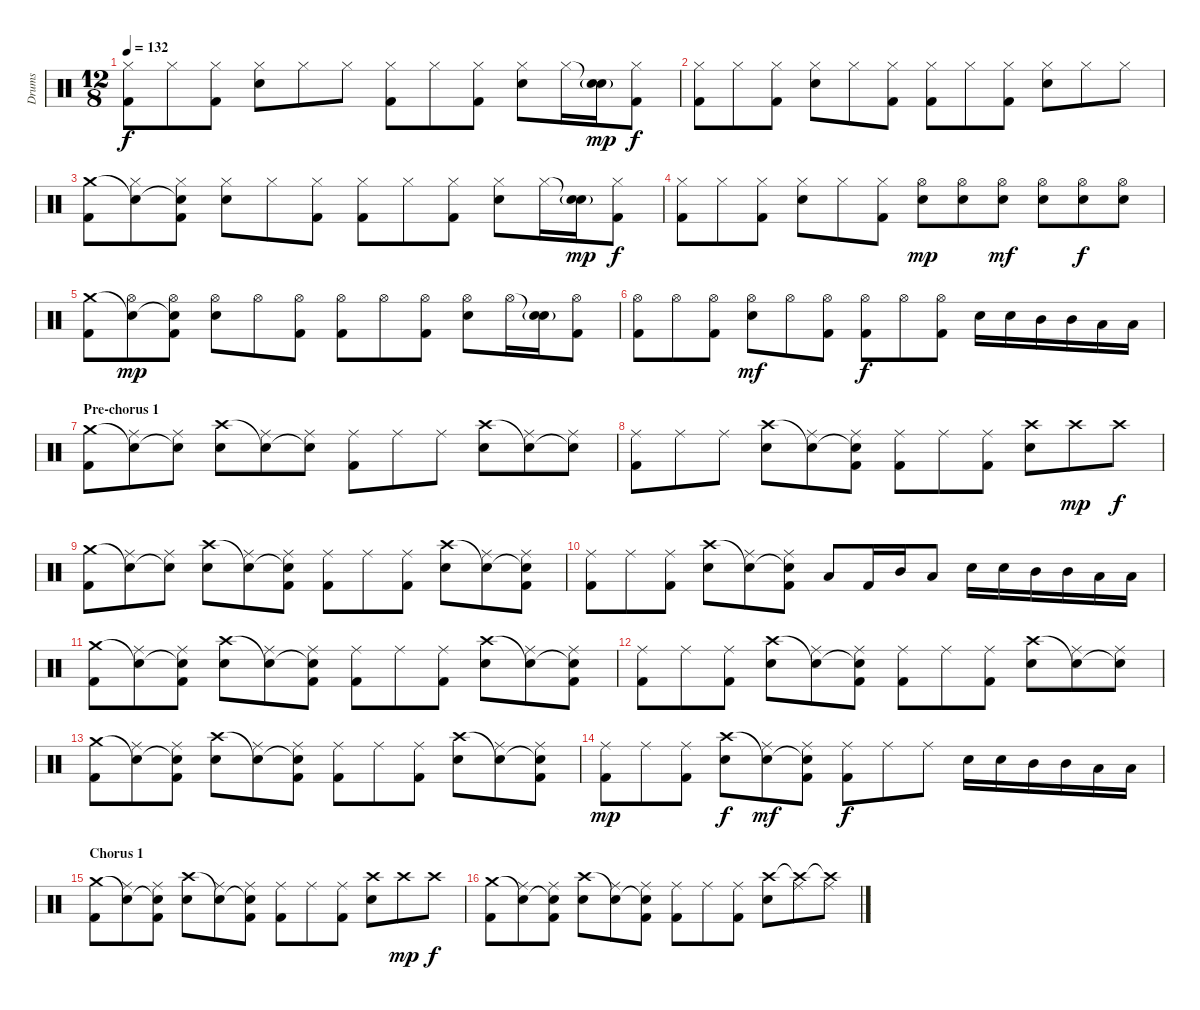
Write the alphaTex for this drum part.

\track ("Drums" "Drums") {instrument percussion}
\staff {score}
\articulation defaults
\ts (12 8)
\tempo 132
\clef neutral
\ks c
("Hi-Hat (closed)" "Kick (hit) 2").8{dy f} "Hi-Hat (closed)".8 ("Hi-Hat (closed)" "Kick (hit) 2").8 ("Hi-Hat (closed)" "Electric Snare (hit)").8 "Hi-Hat (closed)".8 "Hi-Hat (closed)".8 ("Hi-Hat (closed)" "Kick (hit) 2").8 "Hi-Hat (closed)".8 ("Hi-Hat (closed)" "Kick (hit) 2").8 ("Hi-Hat (closed)" "Electric Snare (hit)").8 "Hi-Hat (closed)".16 ("Snare (hit)"{t} "Electric Snare (hit)"{g}).16{dy mp} ("Hi-Hat (closed)" "Kick (hit) 2").8{dy f} |
("Hi-Hat (closed)" "Kick (hit) 2").8 "Hi-Hat (closed)".8 ("Hi-Hat (closed)" "Kick (hit) 2").8 ("Hi-Hat (closed)" "Electric Snare (hit)").8 "Hi-Hat (closed)".8 ("Hi-Hat (closed)" "Kick (hit) 2").8 ("Hi-Hat (closed)" "Kick (hit) 2").8 "Hi-Hat (closed)".8 ("Hi-Hat (closed)" "Kick (hit) 2").8 ("Hi-Hat (closed)" "Electric Snare (hit)").8 "Hi-Hat (closed)".8 "Hi-Hat (closed)".8 |
("Crash medium (hit)" "Kick (hit) 2").8 ("Snare (hit)"{t} "Hi-Hat (closed)").8 ("Snare (hit)"{t} "Hi-Hat (closed)" "Kick (hit) 2").8 ("Hi-Hat (closed)" "Electric Snare (hit)").8 "Hi-Hat (closed)".8 ("Hi-Hat (closed)" "Kick (hit) 2").8 ("Hi-Hat (closed)" "Kick (hit) 2").8 "Hi-Hat (closed)".8 ("Hi-Hat (closed)" "Kick (hit) 2").8 ("Hi-Hat (closed)" "Electric Snare (hit)").8 "Hi-Hat (closed)".16 ("Snare (hit)"{t} "Electric Snare (hit)"{g}).16{dy mp} ("Hi-Hat (closed)" "Kick (hit) 2").8{dy f} |
("Hi-Hat (closed)" "Kick (hit) 2").8 "Hi-Hat (closed)".8 ("Hi-Hat (closed)" "Kick (hit) 2").8 ("Hi-Hat (closed)" "Electric Snare (hit)").8 "Hi-Hat (closed)".8 ("Hi-Hat (closed)" "Kick (hit) 2").8 ("Hi-Hat (open)" "Electric Snare (hit)").8{dy mp} ("Hi-Hat (open)" "Electric Snare (hit)").8 ("Hi-Hat (open)" "Electric Snare (hit)").8{dy mf} ("Hi-Hat (open)" "Electric Snare (hit)").8 ("Hi-Hat (open)" "Electric Snare (hit)").8{dy f} ("Hi-Hat (open)" "Electric Snare (hit)").8 |
("Crash medium (hit)" "Kick (hit) 2").8 ("Snare (hit)"{t} "Hi-Hat (open)").8{dy mp} ("Snare (hit)"{t} "Hi-Hat (open)" "Kick (hit) 2").8 ("Hi-Hat (open)" "Electric Snare (hit)").8 "Hi-Hat (open)".8 ("Hi-Hat (open)" "Kick (hit) 2").8 ("Hi-Hat (open)" "Kick (hit) 2").8 "Hi-Hat (open)".8 ("Hi-Hat (open)" "Kick (hit) 2").8 ("Hi-Hat (open)" "Electric Snare (hit)").8 "Hi-Hat (open)".16 ("Snare (hit)"{t} "Electric Snare (hit)"{g}).16 ("Hi-Hat (open)" "Kick (hit) 2").8 |
("Hi-Hat (open)" "Kick (hit) 2").8 "Hi-Hat (open)".8 ("Hi-Hat (open)" "Kick (hit) 2").8 ("Hi-Hat (open)" "Electric Snare (hit)").8{dy mf} "Hi-Hat (open)".8 ("Hi-Hat (open)" "Kick (hit) 2").8 ("Hi-Hat (open)" "Kick (hit) 2").8{dy f} "Hi-Hat (open)".8 ("Hi-Hat (open)" "Kick (hit) 2").8 "Electric Snare (hit)".16 "Electric Snare (hit)".16 "Mid Tom (hit)".16 "Mid Tom (hit)".16 "Low Tom (hit)".16 "Low Tom (hit)".16 |
\section ("" "Pre-chorus 1")
("Crash medium (hit)" "Kick (hit) 2").8 ("Snare (hit)"{t} "Ride (middle)").8 ("Snare (hit)"{t} "Ride (middle)").8 ("Crash high (hit)" "Electric Snare (hit)").8 ("Snare (hit)"{t} "Ride (middle)").8 ("Snare (hit)"{t} "Ride (middle)").8 ("Ride (middle)" "Kick (hit) 2").8 "Ride (middle)".8 "Ride (middle)".8 ("Crash high (hit)" "Electric Snare (hit)").8 ("Snare (hit)"{t} "Ride (middle)").8 ("Snare (hit)"{t} "Ride (middle)").8 |
("Ride (middle)" "Kick (hit) 2").8 "Ride (middle)".8 "Ride (middle)".8 ("Crash high (hit)" "Electric Snare (hit)").8 ("Snare (hit)"{t} "Ride (middle)").8 ("Snare (hit)"{t} "Ride (middle)" "Kick (hit) 2").8 ("Ride (middle)" "Kick (hit) 2").8 "Ride (middle)".8 ("Ride (middle)" "Kick (hit) 2").8 ("Crash high (hit)" "Electric Snare (hit)").8 "Crash high (hit)".8{dy mp} "Crash high (hit)".8{dy f} |
("Crash medium (hit)" "Kick (hit) 2").8 ("Snare (hit)"{t} "Ride (middle)").8 ("Snare (hit)"{t} "Ride (middle)").8 ("Crash high (hit)" "Electric Snare (hit)").8 ("Snare (hit)"{t} "Ride (middle)").8 ("Snare (hit)"{t} "Ride (middle)" "Kick (hit) 2").8 ("Ride (middle)" "Kick (hit) 2").8 "Ride (middle)".8 ("Ride (middle)" "Kick (hit) 2").8 ("Crash high (hit)" "Electric Snare (hit)").8 ("Snare (hit)"{t} "Ride (middle)").8 ("Snare (hit)"{t} "Ride (middle)" "Kick (hit) 2").8 |
("Ride (middle)" "Kick (hit) 2").8 "Ride (middle)".8 ("Ride (middle)" "Kick (hit) 2").8 ("Crash high (hit)" "Electric Snare (hit)").8 ("Snare (hit)"{t} "Ride (middle)").8 ("Snare (hit)"{t} "Ride (middle)" "Kick (hit) 2").8 "Low Tom (hit)".8 "Kick (hit) 2".16 "Mid Tom (hit)".16 "Low Tom (hit)".8 "Electric Snare (hit)".16 "Electric Snare (hit)".16 "Mid Tom (hit)".16 "Mid Tom (hit)".16 "Low Tom (hit)".16 "Low Tom (hit)".16 |
("Crash medium (hit)" "Kick (hit) 2").8 ("Snare (hit)"{t} "Ride (middle)").8 ("Snare (hit)"{t} "Ride (middle)" "Kick (hit) 2").8 ("Crash high (hit)" "Electric Snare (hit)").8 ("Snare (hit)"{t} "Ride (middle)").8 ("Snare (hit)"{t} "Ride (middle)" "Kick (hit) 2").8 ("Ride (middle)" "Kick (hit) 2").8 "Ride (middle)".8 ("Ride (middle)" "Kick (hit) 2").8 ("Crash high (hit)" "Electric Snare (hit)").8 ("Snare (hit)"{t} "Ride (middle)").8 ("Snare (hit)"{t} "Ride (middle)" "Kick (hit) 2").8 |
("Ride (middle)" "Kick (hit) 2").8 "Ride (middle)".8 ("Ride (middle)" "Kick (hit) 2").8 ("Crash high (hit)" "Electric Snare (hit)").8 ("Snare (hit)"{t} "Ride (middle)").8 ("Snare (hit)"{t} "Ride (middle)" "Kick (hit) 2").8 ("Ride (middle)" "Kick (hit) 2").8 "Ride (middle)".8 ("Ride (middle)" "Kick (hit) 2").8 ("Crash high (hit)" "Electric Snare (hit)").8 ("Snare (hit)"{t} "Ride (middle)").8 ("Snare (hit)"{t} "Ride (middle)").8 |
("Crash medium (hit)" "Kick (hit) 2").8 ("Snare (hit)"{t} "Ride (middle)").8 ("Snare (hit)"{t} "Ride (middle)" "Kick (hit) 2").8 ("Crash high (hit)" "Electric Snare (hit)").8 ("Snare (hit)"{t} "Ride (middle)").8 ("Snare (hit)"{t} "Ride (middle)" "Kick (hit) 2").8 ("Ride (middle)" "Kick (hit) 2").8 "Ride (middle)".8 ("Ride (middle)" "Kick (hit) 2").8 ("Crash high (hit)" "Electric Snare (hit)").8 ("Snare (hit)"{t} "Ride (middle)").8 ("Snare (hit)"{t} "Ride (middle)" "Kick (hit) 2").8 |
("Ride (middle)" "Kick (hit) 2").8{dy mp} "Ride (middle)".8 ("Ride (middle)" "Kick (hit) 2").8 ("Crash high (hit)" "Electric Snare (hit)").8{dy f} ("Snare (hit)"{t} "Ride (middle)").8{dy mf} ("Snare (hit)"{t} "Ride (middle)" "Kick (hit) 2").8 ("Ride (middle)" "Kick (hit) 2").8{dy f} "Ride (middle)".8 "Ride (middle)".8 "Electric Snare (hit)".16 "Electric Snare (hit)".16 "Mid Tom (hit)".16 "Mid Tom (hit)".16 "Low Tom (hit)".16 "Low Tom (hit)".16 |
\section ("" "Chorus 1")
("Crash medium (hit)" "Kick (hit) 2").8 ("Snare (hit)"{t} "Ride (middle)").8 ("Snare (hit)"{t} "Ride (middle)" "Kick (hit) 2").8 ("Crash high (hit)" "Electric Snare (hit)").8 ("Snare (hit)"{t} "Ride (middle)").8 ("Snare (hit)"{t} "Ride (middle)" "Kick (hit) 2").8 ("Ride (middle)" "Kick (hit) 2").8 "Ride (middle)".8 ("Ride (middle)" "Kick (hit) 2").8 ("Crash high (hit)" "Electric Snare (hit)").8 "Crash high (hit)".8{dy mp} "Crash high (hit)".8{dy f} |
("Crash medium (hit)" "Kick (hit) 2").8 ("Snare (hit)"{t} "Ride (middle)").8 ("Snare (hit)"{t} "Ride (middle)" "Kick (hit) 2").8 ("Crash high (hit)" "Electric Snare (hit)").8 ("Snare (hit)"{t} "Ride (middle)").8 ("Snare (hit)"{t} "Ride (middle)" "Kick (hit) 2").8 ("Ride (middle)" "Kick (hit) 2").8 "Ride (middle)".8 ("Ride (middle)" "Kick (hit) 2").8 ("Crash high (hit)" "Electric Snare (hit)").8 ("Crash high (hit)"{t} "Ride (middle)").8 ("Crash high (hit)"{t} "Ride (middle)").8
